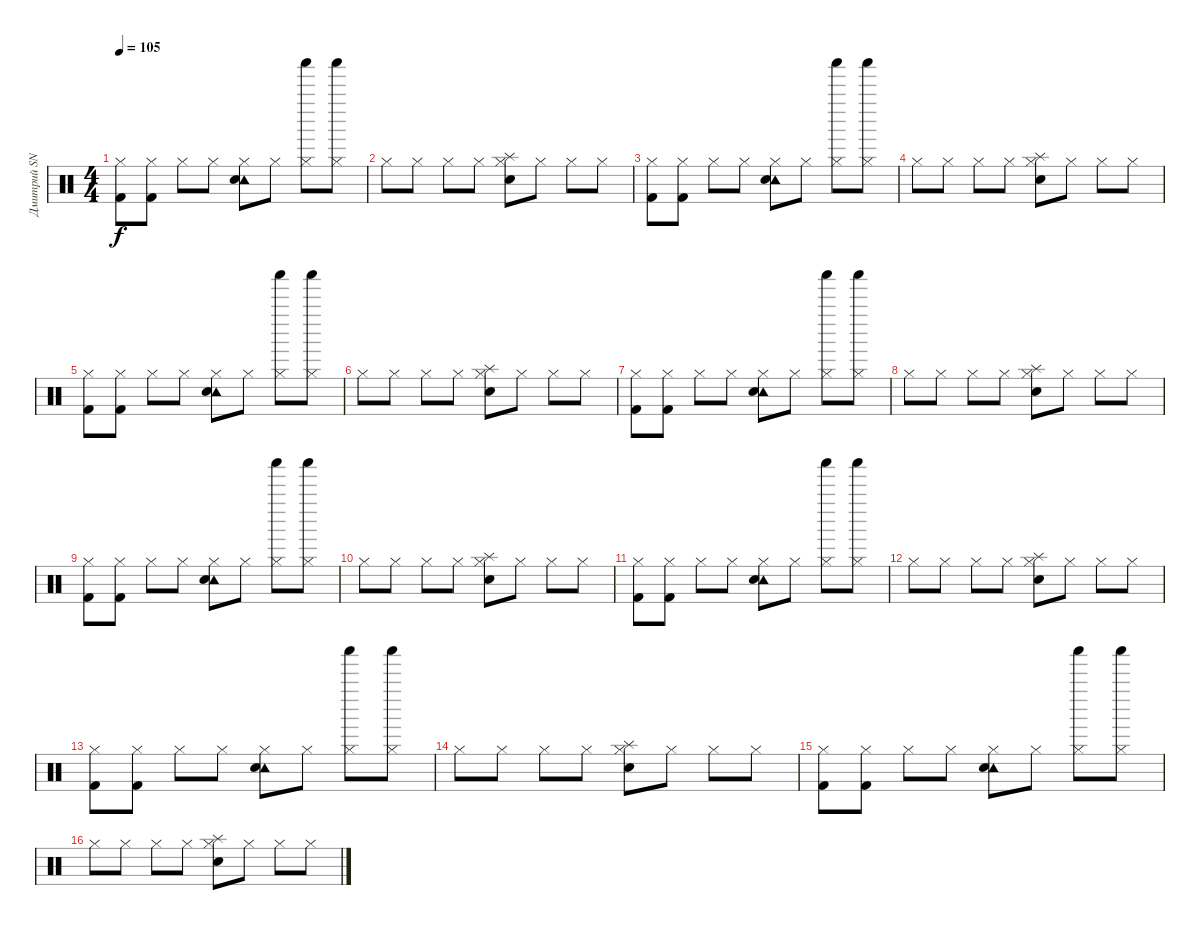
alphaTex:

\track ("Дмитрий SNAKE Хакимов" "Дмитрий SN") {instrument percussion}
\staff {score}
\articulation defaults
\ts (4 4)
\tempo 105
\clef neutral
\ks c
("Hi-Hat (closed)" "Kick (hit) 2").8{dy f} ("Hi-Hat (closed)" "Kick (hit) 2").8 "Hi-Hat (closed)".8 "Hi-Hat (closed)".8 ("Hi-Hat (closed)" "Tambourine (hit)" "Metronome (bell)").8 "Hi-Hat (closed)".8 ("Hi-Hat (closed)" "Shaker (hit)").8 ("Hi-Hat (closed)" "Shaker (hit)").8 |
"Hi-Hat (closed)".8 "Hi-Hat (closed)".8 "Hi-Hat (closed)".8 "Hi-Hat (closed)".8 ("Hi-Hat (closed)" "Splash (hit)" "Metronome (bell)").8 "Hi-Hat (closed)".8 "Hi-Hat (closed)".8 "Hi-Hat (closed)".8 |
("Hi-Hat (closed)" "Kick (hit) 2").8 ("Hi-Hat (closed)" "Kick (hit) 2").8 "Hi-Hat (closed)".8 "Hi-Hat (closed)".8 ("Hi-Hat (closed)" "Tambourine (hit)" "Metronome (bell)").8 "Hi-Hat (closed)".8 ("Hi-Hat (closed)" "Shaker (hit)").8 ("Hi-Hat (closed)" "Shaker (hit)").8 |
"Hi-Hat (closed)".8 "Hi-Hat (closed)".8 "Hi-Hat (closed)".8 "Hi-Hat (closed)".8 ("Hi-Hat (closed)" "Splash (hit)" "Metronome (bell)").8 "Hi-Hat (closed)".8 "Hi-Hat (closed)".8 "Hi-Hat (closed)".8 |
("Hi-Hat (closed)" "Kick (hit) 2").8 ("Hi-Hat (closed)" "Kick (hit) 2").8 "Hi-Hat (closed)".8 "Hi-Hat (closed)".8 ("Hi-Hat (closed)" "Tambourine (hit)" "Metronome (bell)").8 "Hi-Hat (closed)".8 ("Hi-Hat (closed)" "Shaker (hit)").8 ("Hi-Hat (closed)" "Shaker (hit)").8 |
"Hi-Hat (closed)".8 "Hi-Hat (closed)".8 "Hi-Hat (closed)".8 "Hi-Hat (closed)".8 ("Hi-Hat (closed)" "Splash (hit)" "Metronome (bell)").8 "Hi-Hat (closed)".8 "Hi-Hat (closed)".8 "Hi-Hat (closed)".8 |
("Hi-Hat (closed)" "Kick (hit) 2").8 ("Hi-Hat (closed)" "Kick (hit) 2").8 "Hi-Hat (closed)".8 "Hi-Hat (closed)".8 ("Hi-Hat (closed)" "Tambourine (hit)" "Metronome (bell)").8 "Hi-Hat (closed)".8 ("Hi-Hat (closed)" "Shaker (hit)").8 ("Hi-Hat (closed)" "Shaker (hit)").8 |
"Hi-Hat (closed)".8 "Hi-Hat (closed)".8 "Hi-Hat (closed)".8 "Hi-Hat (closed)".8 ("Hi-Hat (closed)" "Splash (hit)" "Metronome (bell)").8 "Hi-Hat (closed)".8 "Hi-Hat (closed)".8 "Hi-Hat (closed)".8 |
("Hi-Hat (closed)" "Kick (hit) 2").8 ("Hi-Hat (closed)" "Kick (hit) 2").8 "Hi-Hat (closed)".8 "Hi-Hat (closed)".8 ("Hi-Hat (closed)" "Tambourine (hit)" "Metronome (bell)").8 "Hi-Hat (closed)".8 ("Hi-Hat (closed)" "Shaker (hit)").8 ("Hi-Hat (closed)" "Shaker (hit)").8 |
"Hi-Hat (closed)".8 "Hi-Hat (closed)".8 "Hi-Hat (closed)".8 "Hi-Hat (closed)".8 ("Hi-Hat (closed)" "Splash (hit)" "Metronome (bell)").8 "Hi-Hat (closed)".8 "Hi-Hat (closed)".8 "Hi-Hat (closed)".8 |
("Hi-Hat (closed)" "Kick (hit) 2").8 ("Hi-Hat (closed)" "Kick (hit) 2").8 "Hi-Hat (closed)".8 "Hi-Hat (closed)".8 ("Hi-Hat (closed)" "Tambourine (hit)" "Metronome (bell)").8 "Hi-Hat (closed)".8 ("Hi-Hat (closed)" "Shaker (hit)").8 ("Hi-Hat (closed)" "Shaker (hit)").8 |
"Hi-Hat (closed)".8 "Hi-Hat (closed)".8 "Hi-Hat (closed)".8 "Hi-Hat (closed)".8 ("Hi-Hat (closed)" "Splash (hit)" "Metronome (bell)").8 "Hi-Hat (closed)".8 "Hi-Hat (closed)".8 "Hi-Hat (closed)".8 |
("Hi-Hat (closed)" "Kick (hit) 2").8 ("Hi-Hat (closed)" "Kick (hit) 2").8 "Hi-Hat (closed)".8 "Hi-Hat (closed)".8 ("Hi-Hat (closed)" "Tambourine (hit)" "Metronome (bell)").8 "Hi-Hat (closed)".8 ("Hi-Hat (closed)" "Shaker (hit)").8 ("Hi-Hat (closed)" "Shaker (hit)").8 |
"Hi-Hat (closed)".8 "Hi-Hat (closed)".8 "Hi-Hat (closed)".8 "Hi-Hat (closed)".8 ("Hi-Hat (closed)" "Splash (hit)" "Metronome (bell)").8 "Hi-Hat (closed)".8 "Hi-Hat (closed)".8 "Hi-Hat (closed)".8 |
("Hi-Hat (closed)" "Kick (hit) 2").8 ("Hi-Hat (closed)" "Kick (hit) 2").8 "Hi-Hat (closed)".8 "Hi-Hat (closed)".8 ("Hi-Hat (closed)" "Tambourine (hit)" "Metronome (bell)").8 "Hi-Hat (closed)".8 ("Hi-Hat (closed)" "Shaker (hit)").8 ("Hi-Hat (closed)" "Shaker (hit)").8 |
"Hi-Hat (closed)".8 "Hi-Hat (closed)".8 "Hi-Hat (closed)".8 "Hi-Hat (closed)".8 ("Hi-Hat (closed)" "Splash (hit)" "Metronome (bell)").8 "Hi-Hat (closed)".8 "Hi-Hat (closed)".8 "Hi-Hat (closed)".8
